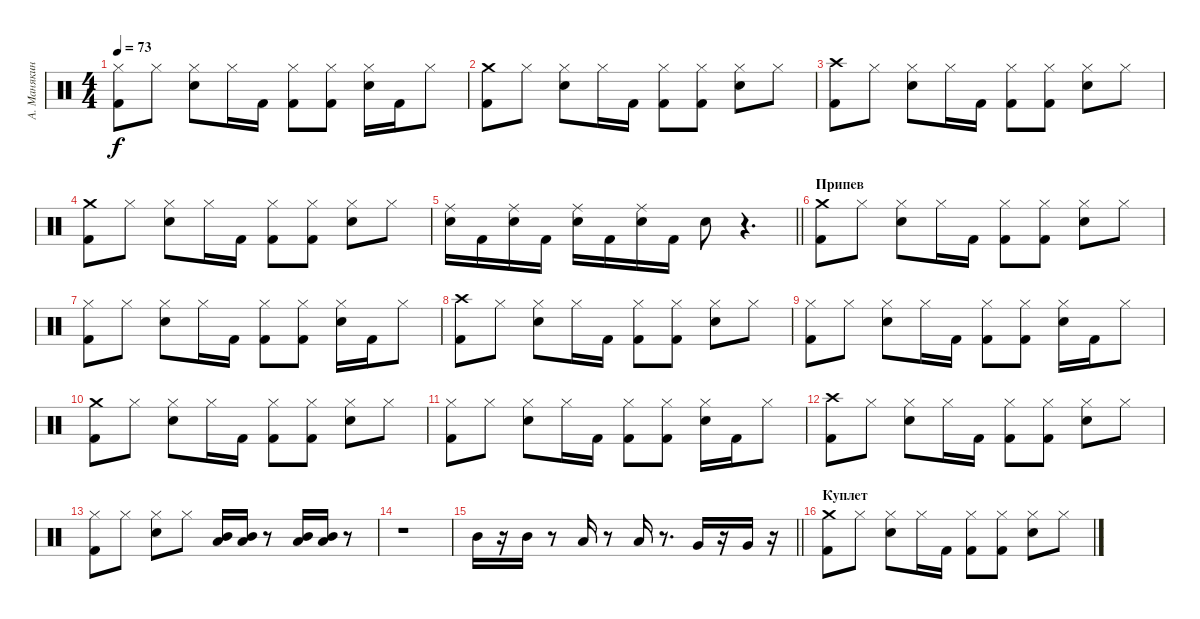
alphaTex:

\track ("А. Манякин" "А. Манякин") {instrument percussion}
\staff {score}
\articulation defaults
\ts (4 4)
\tempo 73
\clef neutral
\ks c
("Hi-Hat (closed)" "Kick (hit) 2").8{dy f} "Hi-Hat (closed)".8 ("Hi-Hat (closed)" "Snare (hit) 2").8 "Hi-Hat (closed)".16 "Kick (hit) 2".16 ("Hi-Hat (closed)" "Kick (hit) 2").8 ("Hi-Hat (closed)" "Kick (hit) 2").8 ("Hi-Hat (closed)" "Snare (hit) 2").16 "Kick (hit) 2".16 "Hi-Hat (closed)".8 |
("Kick (hit) 2" "Crash medium (hit)").8 "Hi-Hat (closed)".8 ("Snare (hit) 2" "Hi-Hat (closed)").8 "Hi-Hat (closed)".16 "Kick (hit) 2".16 ("Kick (hit) 2" "Hi-Hat (closed)").8 ("Kick (hit) 2" "Hi-Hat (closed)").8 ("Snare (hit) 2" "Hi-Hat (closed)").8 "Hi-Hat (closed)".8 |
("Kick (hit) 2" "Crash high (hit)").8 "Hi-Hat (closed)".8 ("Snare (hit) 2" "Hi-Hat (closed)").8 "Hi-Hat (closed)".16 "Kick (hit) 2".16 ("Kick (hit) 2" "Hi-Hat (closed)").8 ("Kick (hit) 2" "Hi-Hat (closed)").8 ("Snare (hit) 2" "Hi-Hat (closed)").8 "Hi-Hat (closed)".8 |
("Kick (hit) 2" "Crash medium (hit)").8 "Hi-Hat (closed)".8 ("Snare (hit) 2" "Hi-Hat (closed)").8 "Hi-Hat (closed)".16 "Kick (hit) 2".16 ("Kick (hit) 2" "Hi-Hat (closed)").8 ("Kick (hit) 2" "Hi-Hat (closed)").8 ("Snare (hit) 2" "Hi-Hat (closed)").8 "Hi-Hat (closed)".8 |
\barLineRight lightlight
("Ride (middle)" "Snare (hit) 2").16 "Kick (hit) 2".16 ("Ride (middle)" "Snare (hit) 2").16 "Kick (hit) 2".16 ("Ride (middle)" "Snare (hit) 2").16 "Kick (hit) 2".16 ("Ride (middle)" "Snare (hit) 2").16 "Kick (hit) 2".16 "Snare (hit) 2".8 r.4{d} |
\section ("" "Припев")
("Kick (hit) 2" "Crash medium (hit)").8 "Hi-Hat (closed)".8 ("Snare (hit) 2" "Hi-Hat (closed)").8 "Hi-Hat (closed)".16 "Kick (hit) 2".16 ("Kick (hit) 2" "Hi-Hat (closed)").8 ("Kick (hit) 2" "Hi-Hat (closed)").8 ("Snare (hit) 2" "Hi-Hat (closed)").8 "Hi-Hat (closed)".8 |
("Hi-Hat (closed)" "Kick (hit) 2").8 "Hi-Hat (closed)".8 ("Hi-Hat (closed)" "Snare (hit) 2").8 "Hi-Hat (closed)".16 "Kick (hit) 2".16 ("Hi-Hat (closed)" "Kick (hit) 2").8 ("Hi-Hat (closed)" "Kick (hit) 2").8 ("Hi-Hat (closed)" "Snare (hit) 2").16 "Kick (hit) 2".16 "Hi-Hat (closed)".8 |
("Kick (hit) 2" "Crash high (hit)").8 "Hi-Hat (closed)".8 ("Snare (hit) 2" "Hi-Hat (closed)").8 "Hi-Hat (closed)".16 "Kick (hit) 2".16 ("Kick (hit) 2" "Hi-Hat (closed)").8 ("Kick (hit) 2" "Hi-Hat (closed)").8 ("Snare (hit) 2" "Hi-Hat (closed)").8 "Hi-Hat (closed)".8 |
("Hi-Hat (closed)" "Kick (hit) 2").8 "Hi-Hat (closed)".8 ("Hi-Hat (closed)" "Snare (hit) 2").8 "Hi-Hat (closed)".16 "Kick (hit) 2".16 ("Hi-Hat (closed)" "Kick (hit) 2").8 ("Hi-Hat (closed)" "Kick (hit) 2").8 ("Hi-Hat (closed)" "Snare (hit) 2").16 "Kick (hit) 2".16 "Hi-Hat (closed)".8 |
("Kick (hit) 2" "Crash medium (hit)").8 "Hi-Hat (closed)".8 ("Snare (hit) 2" "Hi-Hat (closed)").8 "Hi-Hat (closed)".16 "Kick (hit) 2".16 ("Kick (hit) 2" "Hi-Hat (closed)").8 ("Kick (hit) 2" "Hi-Hat (closed)").8 ("Snare (hit) 2" "Hi-Hat (closed)").8 "Hi-Hat (closed)".8 |
("Hi-Hat (closed)" "Kick (hit) 2").8 "Hi-Hat (closed)".8 ("Hi-Hat (closed)" "Snare (hit) 2").8 "Hi-Hat (closed)".16 "Kick (hit) 2".16 ("Hi-Hat (closed)" "Kick (hit) 2").8 ("Hi-Hat (closed)" "Kick (hit) 2").8 ("Hi-Hat (closed)" "Snare (hit) 2").16 "Kick (hit) 2".16 "Hi-Hat (closed)".8 |
("Kick (hit) 2" "Crash high (hit)").8 "Hi-Hat (closed)".8 ("Snare (hit) 2" "Hi-Hat (closed)").8 "Hi-Hat (closed)".16 "Kick (hit) 2".16 ("Kick (hit) 2" "Hi-Hat (closed)").8 ("Kick (hit) 2" "Hi-Hat (closed)").8 ("Snare (hit) 2" "Hi-Hat (closed)").8 "Hi-Hat (closed)".8 |
("Hi-Hat (closed)" "Kick (hit) 2").8 "Hi-Hat (closed)".8 ("Hi-Hat (closed)" "Snare (hit) 2").8 "Hi-Hat (closed)".8 ("Mid Tom (hit)" "Low Tom (hit)").16 ("Mid Tom (hit)" "Low Tom (hit)").16 r.8 ("Mid Tom (hit)" "Low Tom (hit)").16 ("Mid Tom (hit)" "Low Tom (hit)").16 r.8 |
r.1 |
\barLineRight lightlight "Mid Tom (hit)".16
r.16 "Mid Tom (hit)".16 r.8 "Low Tom (hit)".16 r.8 "Low Tom (hit)".16 r.8{d} "Very Low Tom (hit)".16 r.16 "Very Low Tom (hit)".16 r.16 |
\section ("" "Куплет")
("Kick (hit) 2" "Crash medium (hit)").8 "Hi-Hat (closed)".8 ("Snare (hit) 2" "Hi-Hat (closed)").8 "Hi-Hat (closed)".16 "Kick (hit) 2".16 ("Kick (hit) 2" "Hi-Hat (closed)").8 ("Kick (hit) 2" "Hi-Hat (closed)").8 ("Snare (hit) 2" "Hi-Hat (closed)").8 "Hi-Hat (closed)".8
